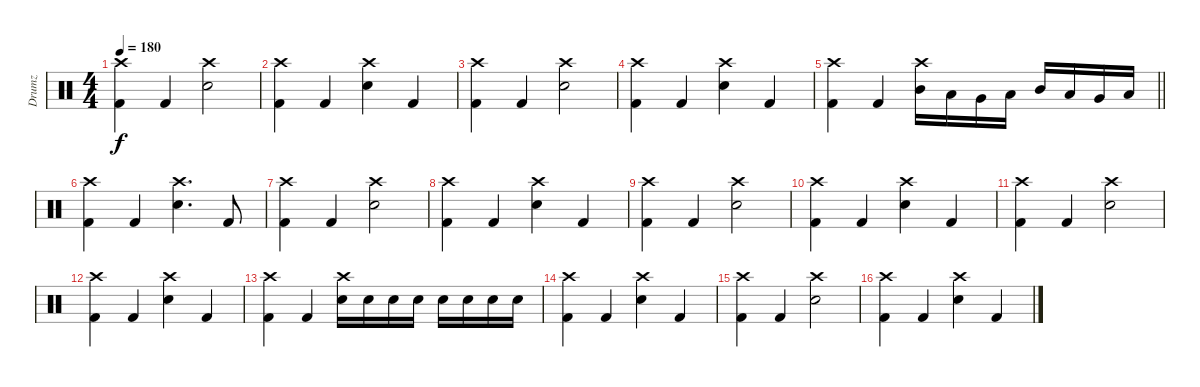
\track ("Drumz" "Drumz") {instrument percussion}
\staff {score}
\articulation defaults
\ts (4 4)
\tempo 180
\clef neutral
\ks c
("Crash high (hit)" "Kick (hit) 2").4{dy f} "Kick (hit) 2".4 ("Crash high (hit)" "Snare (hit) 2").2 |
("Kick (hit) 2" "Crash high (hit)").4 "Kick (hit) 2".4 ("Snare (hit) 2" "Crash high (hit)").4 "Kick (hit) 2".4 |
("Crash high (hit)" "Kick (hit) 2").4 "Kick (hit) 2".4 ("Crash high (hit)" "Snare (hit) 2").2 |
("Kick (hit) 2" "Crash high (hit)").4 "Kick (hit) 2".4 ("Snare (hit) 2" "Crash high (hit)").4 "Kick (hit) 2".4 |
\barLineRight lightlight
("Crash high (hit)" "Kick (hit) 2").4 "Kick (hit) 2".4 ("Crash high (hit)" "Mid Tom (hit)").16 "Low Tom (hit)".16 "Very Low Tom (hit)".16 "Low Floor Tom (hit)".16 "Mid Tom (hit)".16 "Low Tom (hit)".16 "Very Low Tom (hit)".16 "Low Floor Tom (hit)".16 |
("Kick (hit) 2" "Crash high (hit)").4 "Kick (hit) 2".4 ("Crash high (hit)" "Snare (hit) 2").4{d} "Kick (hit) 2".8 |
("Crash high (hit)" "Kick (hit) 2").4 "Kick (hit) 2".4 ("Crash high (hit)" "Snare (hit) 2").2 |
("Kick (hit) 2" "Crash high (hit)").4 "Kick (hit) 2".4 ("Snare (hit) 2" "Crash high (hit)").4 "Kick (hit) 2".4 |
("Crash high (hit)" "Kick (hit) 2").4 "Kick (hit) 2".4 ("Crash high (hit)" "Snare (hit) 2").2 |
("Kick (hit) 2" "Crash high (hit)").4 "Kick (hit) 2".4 ("Snare (hit) 2" "Crash high (hit)").4 "Kick (hit) 2".4 |
("Crash high (hit)" "Kick (hit) 2").4 "Kick (hit) 2".4 ("Crash high (hit)" "Snare (hit) 2").2 |
("Kick (hit) 2" "Crash high (hit)").4 "Kick (hit) 2".4 ("Snare (hit) 2" "Crash high (hit)").4 "Kick (hit) 2".4 |
("Crash high (hit)" "Kick (hit) 2").4 "Kick (hit) 2".4 ("Crash high (hit)" "Electric Snare (hit)").16 "Electric Snare (hit)".16 "Electric Snare (hit)".16 "Electric Snare (hit)".16 "Electric Snare (hit)".16 "Electric Snare (hit)".16 "Electric Snare (hit)".16 "Electric Snare (hit)".16 |
("Kick (hit) 2" "Crash high (hit)").4 "Kick (hit) 2".4 ("Snare (hit) 2" "Crash high (hit)").4 "Kick (hit) 2".4 |
("Crash high (hit)" "Kick (hit) 2").4 "Kick (hit) 2".4 ("Crash high (hit)" "Snare (hit) 2").2 |
("Kick (hit) 2" "Crash high (hit)").4 "Kick (hit) 2".4 ("Snare (hit) 2" "Crash high (hit)").4 "Kick (hit) 2".4
